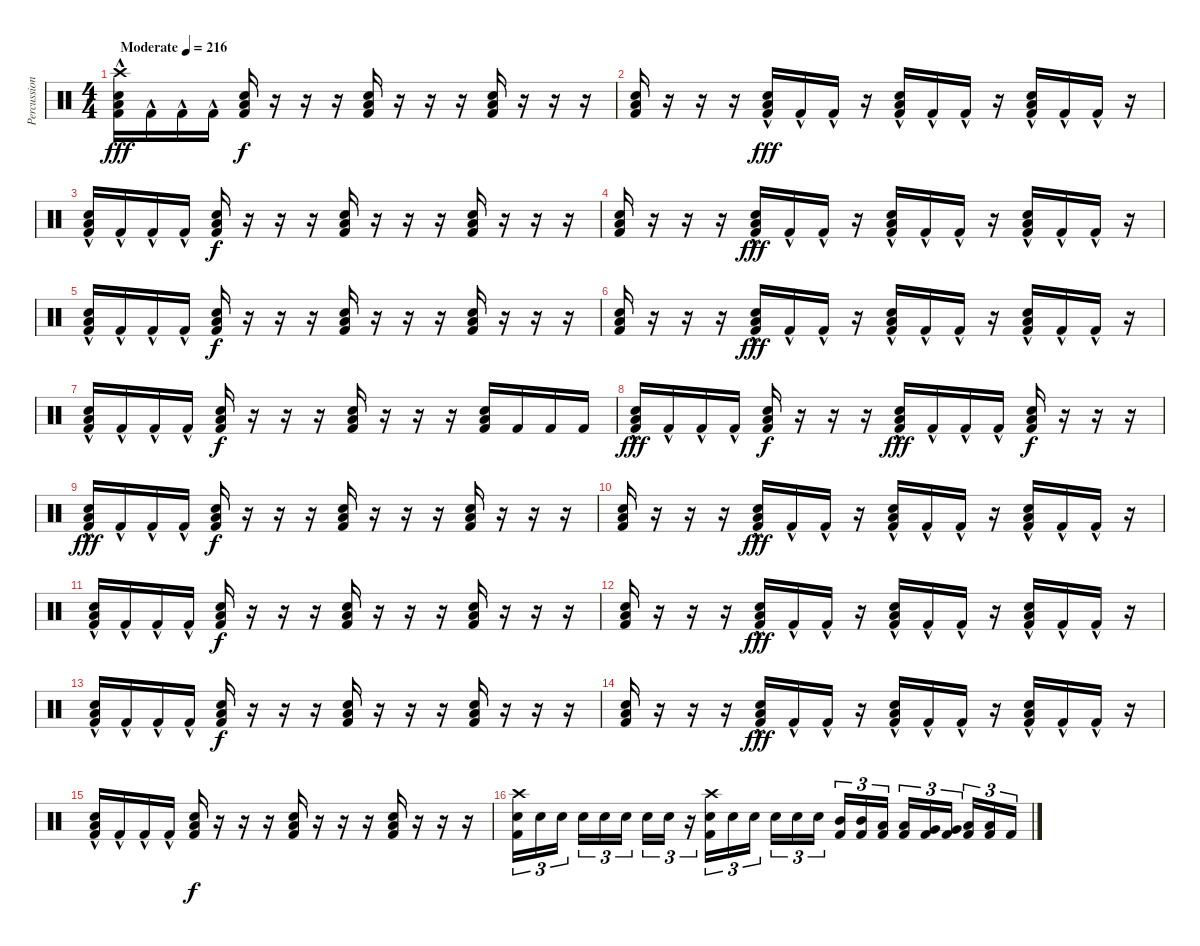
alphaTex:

\track ("Percussions" "Percussion") {instrument percussion}
\staff {score}
\articulation defaults
\ts (4 4)
\tempo (216 "Moderate")
\clef neutral
\ks c
("Crash high (hit)" "Electric Snare (hit)" "Low Floor Tom (hit)" "Kick (hit) 2"{hac}).16{dy fff} "Kick (hit) 2"{hac}.16 "Kick (hit) 2"{hac}.16 "Kick (hit) 2"{hac}.16 ("Electric Snare (hit)" "Low Floor Tom (hit)" "Kick (hit) 2").16{dy f} r.16 r.16 r.16 ("Electric Snare (hit)" "Low Floor Tom (hit)" "Kick (hit) 2").16 r.16 r.16 r.16 ("Electric Snare (hit)" "Low Floor Tom (hit)" "Kick (hit) 2").16 r.16 r.16 r.16 |
("Electric Snare (hit)" "Low Floor Tom (hit)" "Kick (hit) 2").16 r.16 r.16 r.16 ("Electric Snare (hit)" "Low Floor Tom (hit)" "Kick (hit) 2"{hac}).16{dy fff} "Kick (hit) 2"{hac}.16 "Kick (hit) 2"{hac}.16 r.16 ("Electric Snare (hit)" "Low Floor Tom (hit)" "Kick (hit) 2"{hac}).16 "Kick (hit) 2"{hac}.16 "Kick (hit) 2"{hac}.16 r.16 ("Electric Snare (hit)" "Low Floor Tom (hit)" "Kick (hit) 2"{hac}).16 "Kick (hit) 2"{hac}.16 "Kick (hit) 2"{hac}.16 r.16 |
("Electric Snare (hit)" "Low Floor Tom (hit)" "Kick (hit) 2"{hac}).16 "Kick (hit) 2"{hac}.16 "Kick (hit) 2"{hac}.16 "Kick (hit) 2"{hac}.16 ("Electric Snare (hit)" "Low Floor Tom (hit)" "Kick (hit) 2").16{dy f} r.16 r.16 r.16 ("Electric Snare (hit)" "Low Floor Tom (hit)" "Kick (hit) 2").16 r.16 r.16 r.16 ("Electric Snare (hit)" "Low Floor Tom (hit)" "Kick (hit) 2").16 r.16 r.16 r.16 |
("Electric Snare (hit)" "Low Floor Tom (hit)" "Kick (hit) 2").16 r.16 r.16 r.16 ("Electric Snare (hit)" "Low Floor Tom (hit)" "Kick (hit) 2"{hac}).16{dy fff} "Kick (hit) 2"{hac}.16 "Kick (hit) 2"{hac}.16 r.16 ("Electric Snare (hit)" "Low Floor Tom (hit)" "Kick (hit) 2"{hac}).16 "Kick (hit) 2"{hac}.16 "Kick (hit) 2"{hac}.16 r.16 ("Electric Snare (hit)" "Low Floor Tom (hit)" "Kick (hit) 2"{hac}).16 "Kick (hit) 2"{hac}.16 "Kick (hit) 2"{hac}.16 r.16 |
("Electric Snare (hit)" "Low Floor Tom (hit)" "Kick (hit) 2"{hac}).16 "Kick (hit) 2"{hac}.16 "Kick (hit) 2"{hac}.16 "Kick (hit) 2"{hac}.16 ("Electric Snare (hit)" "Low Floor Tom (hit)" "Kick (hit) 2").16{dy f} r.16 r.16 r.16 ("Electric Snare (hit)" "Low Floor Tom (hit)" "Kick (hit) 2").16 r.16 r.16 r.16 ("Electric Snare (hit)" "Low Floor Tom (hit)" "Kick (hit) 2").16 r.16 r.16 r.16 |
("Electric Snare (hit)" "Low Floor Tom (hit)" "Kick (hit) 2").16 r.16 r.16 r.16 ("Electric Snare (hit)" "Low Floor Tom (hit)" "Kick (hit) 2"{hac}).16{dy fff} "Kick (hit) 2"{hac}.16 "Kick (hit) 2"{hac}.16 r.16 ("Electric Snare (hit)" "Low Floor Tom (hit)" "Kick (hit) 2"{hac}).16 "Kick (hit) 2"{hac}.16 "Kick (hit) 2"{hac}.16 r.16 ("Electric Snare (hit)" "Low Floor Tom (hit)" "Kick (hit) 2"{hac}).16 "Kick (hit) 2"{hac}.16 "Kick (hit) 2"{hac}.16 r.16 |
("Electric Snare (hit)" "Low Floor Tom (hit)" "Kick (hit) 2"{hac}).16 "Kick (hit) 2"{hac}.16 "Kick (hit) 2"{hac}.16 "Kick (hit) 2"{hac}.16 ("Electric Snare (hit)" "Low Floor Tom (hit)" "Kick (hit) 2").16{dy f} r.16 r.16 r.16 ("Electric Snare (hit)" "Low Floor Tom (hit)" "Kick (hit) 2").16 r.16 r.16 r.16 ("Electric Snare (hit)" "Low Floor Tom (hit)" "Kick (hit) 2").16 "Kick (hit) 2".16 "Kick (hit) 2".16 "Kick (hit) 2".16 |
("Electric Snare (hit)" "Low Floor Tom (hit)" "Kick (hit) 2"{hac}).16{dy fff} "Kick (hit) 2"{hac}.16 "Kick (hit) 2"{hac}.16 "Kick (hit) 2"{hac}.16 ("Electric Snare (hit)" "Low Floor Tom (hit)" "Kick (hit) 2").16{dy f} r.16 r.16 r.16 ("Electric Snare (hit)" "Low Floor Tom (hit)" "Kick (hit) 2"{hac}).16{dy fff} "Kick (hit) 2"{hac}.16 "Kick (hit) 2"{hac}.16 "Kick (hit) 2"{hac}.16 ("Electric Snare (hit)" "Low Floor Tom (hit)" "Kick (hit) 2").16{dy f} r.16 r.16 r.16 |
("Electric Snare (hit)" "Low Floor Tom (hit)" "Kick (hit) 2"{hac}).16{dy fff} "Kick (hit) 2"{hac}.16 "Kick (hit) 2"{hac}.16 "Kick (hit) 2"{hac}.16 ("Electric Snare (hit)" "Low Floor Tom (hit)" "Kick (hit) 2").16{dy f} r.16 r.16 r.16 ("Electric Snare (hit)" "Low Floor Tom (hit)" "Kick (hit) 2").16 r.16 r.16 r.16 ("Electric Snare (hit)" "Low Floor Tom (hit)" "Kick (hit) 2").16 r.16 r.16 r.16 |
("Electric Snare (hit)" "Low Floor Tom (hit)" "Kick (hit) 2").16 r.16 r.16 r.16 ("Electric Snare (hit)" "Low Floor Tom (hit)" "Kick (hit) 2"{hac}).16{dy fff} "Kick (hit) 2"{hac}.16 "Kick (hit) 2"{hac}.16 r.16 ("Electric Snare (hit)" "Low Floor Tom (hit)" "Kick (hit) 2"{hac}).16 "Kick (hit) 2"{hac}.16 "Kick (hit) 2"{hac}.16 r.16 ("Electric Snare (hit)" "Low Floor Tom (hit)" "Kick (hit) 2"{hac}).16 "Kick (hit) 2"{hac}.16 "Kick (hit) 2"{hac}.16 r.16 |
("Electric Snare (hit)" "Low Floor Tom (hit)" "Kick (hit) 2"{hac}).16 "Kick (hit) 2"{hac}.16 "Kick (hit) 2"{hac}.16 "Kick (hit) 2"{hac}.16 ("Electric Snare (hit)" "Low Floor Tom (hit)" "Kick (hit) 2").16{dy f} r.16 r.16 r.16 ("Electric Snare (hit)" "Low Floor Tom (hit)" "Kick (hit) 2").16 r.16 r.16 r.16 ("Electric Snare (hit)" "Low Floor Tom (hit)" "Kick (hit) 2").16 r.16 r.16 r.16 |
("Electric Snare (hit)" "Low Floor Tom (hit)" "Kick (hit) 2").16 r.16 r.16 r.16 ("Electric Snare (hit)" "Low Floor Tom (hit)" "Kick (hit) 2"{hac}).16{dy fff} "Kick (hit) 2"{hac}.16 "Kick (hit) 2"{hac}.16 r.16 ("Electric Snare (hit)" "Low Floor Tom (hit)" "Kick (hit) 2"{hac}).16 "Kick (hit) 2"{hac}.16 "Kick (hit) 2"{hac}.16 r.16 ("Electric Snare (hit)" "Low Floor Tom (hit)" "Kick (hit) 2"{hac}).16 "Kick (hit) 2"{hac}.16 "Kick (hit) 2"{hac}.16 r.16 |
("Electric Snare (hit)" "Low Floor Tom (hit)" "Kick (hit) 2"{hac}).16 "Kick (hit) 2"{hac}.16 "Kick (hit) 2"{hac}.16 "Kick (hit) 2"{hac}.16 ("Electric Snare (hit)" "Low Floor Tom (hit)" "Kick (hit) 2").16{dy f} r.16 r.16 r.16 ("Electric Snare (hit)" "Low Floor Tom (hit)" "Kick (hit) 2").16 r.16 r.16 r.16 ("Electric Snare (hit)" "Low Floor Tom (hit)" "Kick (hit) 2").16 r.16 r.16 r.16 |
("Electric Snare (hit)" "Low Floor Tom (hit)" "Kick (hit) 2").16 r.16 r.16 r.16 ("Electric Snare (hit)" "Low Floor Tom (hit)" "Kick (hit) 2"{hac}).16{dy fff} "Kick (hit) 2"{hac}.16 "Kick (hit) 2"{hac}.16 r.16 ("Electric Snare (hit)" "Low Floor Tom (hit)" "Kick (hit) 2"{hac}).16 "Kick (hit) 2"{hac}.16 "Kick (hit) 2"{hac}.16 r.16 ("Electric Snare (hit)" "Low Floor Tom (hit)" "Kick (hit) 2"{hac}).16 "Kick (hit) 2"{hac}.16 "Kick (hit) 2"{hac}.16 r.16 |
("Electric Snare (hit)" "Low Floor Tom (hit)" "Kick (hit) 2"{hac}).16 "Kick (hit) 2"{hac}.16 "Kick (hit) 2"{hac}.16 "Kick (hit) 2"{hac}.16 ("Electric Snare (hit)" "Low Floor Tom (hit)" "Kick (hit) 2").16{dy f} r.16 r.16 r.16 ("Electric Snare (hit)" "Low Floor Tom (hit)" "Kick (hit) 2").16 r.16 r.16 r.16 ("Electric Snare (hit)" "Low Floor Tom (hit)" "Kick (hit) 2").16 r.16 r.16 r.16 |
("Crash high (hit)" "Electric Snare (hit)" "Kick (hit) 2").16{tu (3 2)} "Electric Snare (hit)".16{tu (3 2)} "Electric Snare (hit)".16{tu (3 2) beam splitsecondary} "Electric Snare (hit)".16{tu (3 2)} "Electric Snare (hit)".16{tu (3 2)} "Electric Snare (hit)".16{tu (3 2)} "Electric Snare (hit)".16{tu (3 2)} "Electric Snare (hit)".16{tu (3 2)} r.16{tu (3 2)} ("Crash high (hit)" "Electric Snare (hit)" "Kick (hit) 2").16{tu (3 2)} "Electric Snare (hit)".16{tu (3 2)} "Electric Snare (hit)".16{tu (3 2)} "Electric Snare (hit)".16{tu (3 2)} "Electric Snare (hit)".16{tu (3 2)} "Electric Snare (hit)".16{tu (3 2) beam splitsecondary} ("Mid Tom (hit)" "Kick (hit) 2").16{tu (3 2)} ("Mid Tom (hit)" "Kick (hit) 2").16{tu (3 2)} ("Low Tom (hit)" "Kick (hit) 2").16{tu (3 2)} ("Low Tom (hit)" "Kick (hit) 2").16{tu (3 2)} ("Very Low Tom (hit)" "Kick (hit) 2").16{tu (3 2)} ("Very Low Tom (hit)" "Kick (hit) 2").16{tu (3 2) beam splitsecondary} ("Low Floor Tom (hit)" "Kick (hit) 2").16{tu (3 2)} ("Low Floor Tom (hit)" "Kick (hit) 2").16{tu (3 2)} "Kick (hit) 2".16{tu (3 2)}
